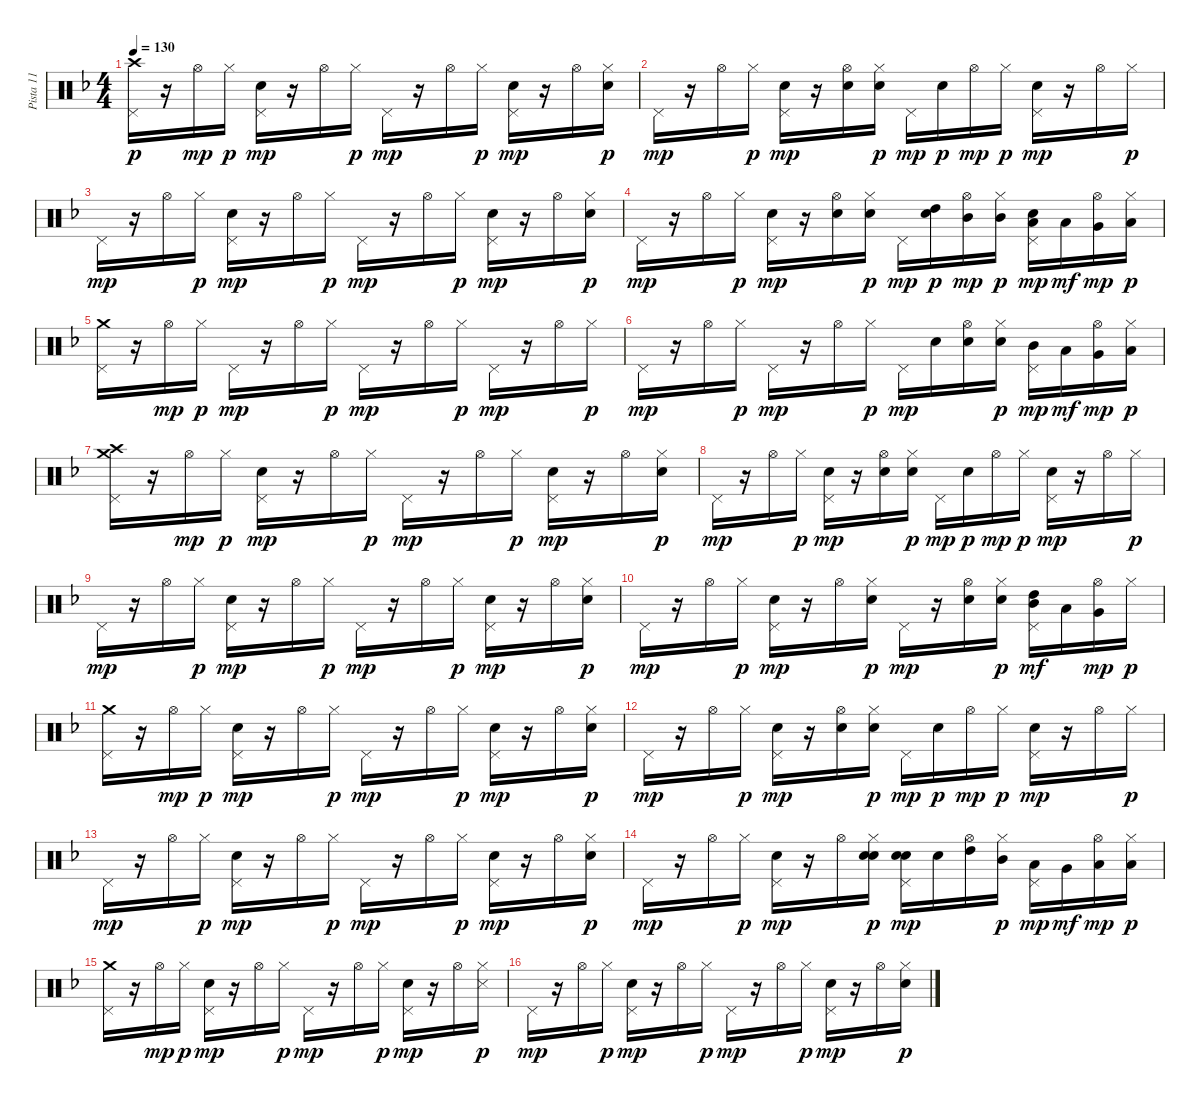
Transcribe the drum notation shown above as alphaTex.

\track ("Pista 11" "Pista 11") {instrument percussion}
\staff {score}
\articulation defaults
\ts (4 4)
\tempo 130
\clef neutral
\ks dminor
("Pedal Hi-Hat (hit)" "Crash high (hit)").16{dy p} r.16 "Hi-Hat (open)".16{dy mp} "Hi-Hat (closed)".16{dy p} ("Snare (hit) 2" "Pedal Hi-Hat (hit)").16{dy mp} r.16 "Hi-Hat (open)".16 "Hi-Hat (closed)".16{dy p} "Pedal Hi-Hat (hit)".16{dy mp} r.16 "Hi-Hat (open)".16 "Hi-Hat (closed)".16{dy p} ("Snare (hit) 2" "Pedal Hi-Hat (hit)").16{dy mp} r.16 "Hi-Hat (open)".16 ("Electric Snare (hit)" "Hi-Hat (closed)").16{dy p} |
"Pedal Hi-Hat (hit)".16{dy mp} r.16 "Hi-Hat (open)".16 "Hi-Hat (closed)".16{dy p} ("Snare (hit) 2" "Pedal Hi-Hat (hit)").16{dy mp} r.16 ("Snare (hit) 2" "Hi-Hat (open)").16 ("Electric Snare (hit)" "Hi-Hat (closed)").16{dy p} "Pedal Hi-Hat (hit)".16{dy mp} "Snare (hit) 2".16{dy p} "Hi-Hat (open)".16{dy mp} "Hi-Hat (closed)".16{dy p} ("Snare (hit) 2" "Pedal Hi-Hat (hit)").16{dy mp} r.16 "Hi-Hat (open)".16 "Hi-Hat (closed)".16{dy p} |
"Pedal Hi-Hat (hit)".16{dy mp} r.16 "Hi-Hat (open)".16 "Hi-Hat (closed)".16{dy p} ("Snare (hit) 2" "Pedal Hi-Hat (hit)").16{dy mp} r.16 "Hi-Hat (open)".16 "Hi-Hat (closed)".16{dy p} "Pedal Hi-Hat (hit)".16{dy mp} r.16 "Hi-Hat (open)".16 "Hi-Hat (closed)".16{dy p} ("Snare (hit) 2" "Pedal Hi-Hat (hit)").16{dy mp} r.16 "Hi-Hat (open)".16 ("Electric Snare (hit)" "Hi-Hat (closed)").16{dy p} |
"Pedal Hi-Hat (hit)".16{dy mp} r.16 "Hi-Hat (open)".16 "Hi-Hat (closed)".16{dy p} ("Snare (hit) 2" "Pedal Hi-Hat (hit)").16{dy mp} r.16 ("Snare (hit) 2" "Hi-Hat (open)").16 ("Electric Snare (hit)" "Hi-Hat (closed)").16{dy p} "Pedal Hi-Hat (hit)".16{dy mp} ("High Tom (hit)" "Snare (hit) 2").16{dy p} ("Mid Tom (hit)" "Hi-Hat (open)").16{dy mp} ("Mid Tom (hit)" "Hi-Hat (closed)").16{dy p} ("Low Tom (hit)" "Snare (hit) 2" "Pedal Hi-Hat (hit)").16{dy mp} "Low Tom (hit)".16{dy mf} ("Very Low Tom (hit)" "Hi-Hat (open)").16{dy mp} ("Low Floor Tom (hit)" "Hi-Hat (closed)").16{dy p} |
("Pedal Hi-Hat (hit)" "Crash medium (hit)").16 r.16 "Hi-Hat (open)".16{dy mp} "Hi-Hat (closed)".16{dy p} "Pedal Hi-Hat (hit)".16{dy mp} r.16 "Hi-Hat (open)".16 "Hi-Hat (closed)".16{dy p} "Pedal Hi-Hat (hit)".16{dy mp} r.16 "Hi-Hat (open)".16 "Hi-Hat (closed)".16{dy p} "Pedal Hi-Hat (hit)".16{dy mp} r.16 "Hi-Hat (open)".16 "Hi-Hat (closed)".16{dy p} |
"Pedal Hi-Hat (hit)".16{dy mp} r.16 "Hi-Hat (open)".16 "Hi-Hat (closed)".16{dy p} "Pedal Hi-Hat (hit)".16{dy mp} r.16 "Hi-Hat (open)".16 "Hi-Hat (closed)".16{dy p} "Pedal Hi-Hat (hit)".16{dy mp} "Snare (hit) 2".16 ("Snare (hit) 2" "Hi-Hat (open)").16 ("Snare (hit) 2" "Hi-Hat (closed)").16{dy p} ("Mid Tom (hit)" "Pedal Hi-Hat (hit)").16{dy mp} "Low Tom (hit)".16{dy mf} ("Very Low Tom (hit)" "Hi-Hat (open)").16{dy mp} ("Low Floor Tom (hit)" "Hi-Hat (closed)").16{dy p} |
("Pedal Hi-Hat (hit)" "Crash high (hit)" "Crash medium (hit)").16 r.16 "Hi-Hat (open)".16{dy mp} "Hi-Hat (closed)".16{dy p} ("Snare (hit) 2" "Pedal Hi-Hat (hit)").16{dy mp} r.16 "Hi-Hat (open)".16 "Hi-Hat (closed)".16{dy p} "Pedal Hi-Hat (hit)".16{dy mp} r.16 "Hi-Hat (open)".16 "Hi-Hat (closed)".16{dy p} ("Snare (hit) 2" "Pedal Hi-Hat (hit)").16{dy mp} r.16 "Hi-Hat (open)".16 ("Electric Snare (hit)" "Hi-Hat (closed)").16{dy p} |
"Pedal Hi-Hat (hit)".16{dy mp} r.16 "Hi-Hat (open)".16 "Hi-Hat (closed)".16{dy p} ("Snare (hit) 2" "Pedal Hi-Hat (hit)").16{dy mp} r.16 ("Snare (hit) 2" "Hi-Hat (open)").16 ("Electric Snare (hit)" "Hi-Hat (closed)").16{dy p} "Pedal Hi-Hat (hit)".16{dy mp} "Snare (hit) 2".16{dy p} "Hi-Hat (open)".16{dy mp} "Hi-Hat (closed)".16{dy p} ("Snare (hit) 2" "Pedal Hi-Hat (hit)").16{dy mp} r.16 "Hi-Hat (open)".16 "Hi-Hat (closed)".16{dy p} |
"Pedal Hi-Hat (hit)".16{dy mp} r.16 "Hi-Hat (open)".16 "Hi-Hat (closed)".16{dy p} ("Snare (hit) 2" "Pedal Hi-Hat (hit)").16{dy mp} r.16 "Hi-Hat (open)".16 "Hi-Hat (closed)".16{dy p} "Pedal Hi-Hat (hit)".16{dy mp} r.16 "Hi-Hat (open)".16 "Hi-Hat (closed)".16{dy p} ("Snare (hit) 2" "Pedal Hi-Hat (hit)").16{dy mp} r.16 "Hi-Hat (open)".16 ("Electric Snare (hit)" "Hi-Hat (closed)").16{dy p} |
"Pedal Hi-Hat (hit)".16{dy mp} r.16 "Hi-Hat (open)".16 "Hi-Hat (closed)".16{dy p} ("Snare (hit) 2" "Pedal Hi-Hat (hit)").16{dy mp} r.16 "Hi-Hat (open)".16 ("Electric Snare (hit)" "Hi-Hat (closed)").16{dy p} "Pedal Hi-Hat (hit)".16{dy mp} r.16 ("Snare (hit) 2" "Hi-Hat (open)").16 ("Snare (hit) 2" "Hi-Hat (closed)").16{dy p} ("High Tom (hit)" "Pedal Hi-Hat (hit)" "Mid Tom (hit)").16{dy mf} "Low Tom (hit)".16 ("Very Low Tom (hit)" "Hi-Hat (open)").16{dy mp} "Hi-Hat (closed)".16{dy p} |
("Pedal Hi-Hat (hit)" "Crash medium (hit)").16 r.16 "Hi-Hat (open)".16{dy mp} "Hi-Hat (closed)".16{dy p} ("Snare (hit) 2" "Pedal Hi-Hat (hit)").16{dy mp} r.16 "Hi-Hat (open)".16 "Hi-Hat (closed)".16{dy p} "Pedal Hi-Hat (hit)".16{dy mp} r.16 "Hi-Hat (open)".16 "Hi-Hat (closed)".16{dy p} ("Snare (hit) 2" "Pedal Hi-Hat (hit)").16{dy mp} r.16 "Hi-Hat (open)".16 ("Electric Snare (hit)" "Hi-Hat (closed)").16{dy p} |
"Pedal Hi-Hat (hit)".16{dy mp} r.16 "Hi-Hat (open)".16 "Hi-Hat (closed)".16{dy p} ("Snare (hit) 2" "Pedal Hi-Hat (hit)").16{dy mp} r.16 ("Snare (hit) 2" "Hi-Hat (open)").16 ("Electric Snare (hit)" "Hi-Hat (closed)").16{dy p} "Pedal Hi-Hat (hit)".16{dy mp} "Snare (hit) 2".16{dy p} "Hi-Hat (open)".16{dy mp} "Hi-Hat (closed)".16{dy p} ("Snare (hit) 2" "Pedal Hi-Hat (hit)").16{dy mp} r.16 "Hi-Hat (open)".16 "Hi-Hat (closed)".16{dy p} |
"Pedal Hi-Hat (hit)".16{dy mp} r.16 "Hi-Hat (open)".16 "Hi-Hat (closed)".16{dy p} ("Snare (hit) 2" "Pedal Hi-Hat (hit)").16{dy mp} r.16 "Hi-Hat (open)".16 "Hi-Hat (closed)".16{dy p} "Pedal Hi-Hat (hit)".16{dy mp} r.16 "Hi-Hat (open)".16 "Hi-Hat (closed)".16{dy p} ("Snare (hit) 2" "Pedal Hi-Hat (hit)").16{dy mp} r.16 "Hi-Hat (open)".16 ("Electric Snare (hit)" "Hi-Hat (closed)").16{dy p} |
"Pedal Hi-Hat (hit)".16{dy mp} r.16 "Hi-Hat (open)".16 "Hi-Hat (closed)".16{dy p} ("Snare (hit) 2" "Pedal Hi-Hat (hit)").16{dy mp} r.16 "Hi-Hat (open)".16 ("Electric Snare (hit)" "Hi-Hat (closed)" "Snare (hit) 2").16{dy p} ("Snare (hit) 2" "Pedal Hi-Hat (hit)" "Snare (hit) 2").16{dy mp} "Snare (hit) 2".16 ("High Tom (hit)" "Hi-Hat (open)").16 ("Mid Tom (hit)" "Hi-Hat (closed)").16{dy p} ("Low Tom (hit)" "Pedal Hi-Hat (hit)").16{dy mp} "Very Low Tom (hit)".16{dy mf} ("Low Floor Tom (hit)" "Hi-Hat (open)").16{dy mp} ("Low Floor Tom (hit)" "Hi-Hat (closed)").16{dy p} |
("Pedal Hi-Hat (hit)" "Crash medium (hit)").16 r.16 "Hi-Hat (open)".16{dy mp} "Hi-Hat (closed)".16{dy p} ("Snare (hit) 2" "Pedal Hi-Hat (hit)").16{dy mp} r.16 "Hi-Hat (open)".16 "Hi-Hat (closed)".16{dy p} "Pedal Hi-Hat (hit)".16{dy mp} r.16 "Hi-Hat (open)".16 "Hi-Hat (closed)".16{dy p} ("Snare (hit) 2" "Pedal Hi-Hat (hit)").16{dy mp} r.16 "Hi-Hat (open)".16 ("Snare (side stick) 3" "Hi-Hat (closed)").16{dy p} |
"Pedal Hi-Hat (hit)".16{dy mp} r.16 "Hi-Hat (open)".16 "Hi-Hat (closed)".16{dy p} ("Snare (hit) 2" "Pedal Hi-Hat (hit)").16{dy mp} r.16 "Hi-Hat (open)".16 "Hi-Hat (closed)".16{dy p} "Pedal Hi-Hat (hit)".16{dy mp} r.16 "Hi-Hat (open)".16 "Hi-Hat (closed)".16{dy p} ("Snare (hit) 2" "Pedal Hi-Hat (hit)").16{dy mp} r.16 "Hi-Hat (open)".16 ("Electric Snare (hit)" "Hi-Hat (closed)").16{dy p}
